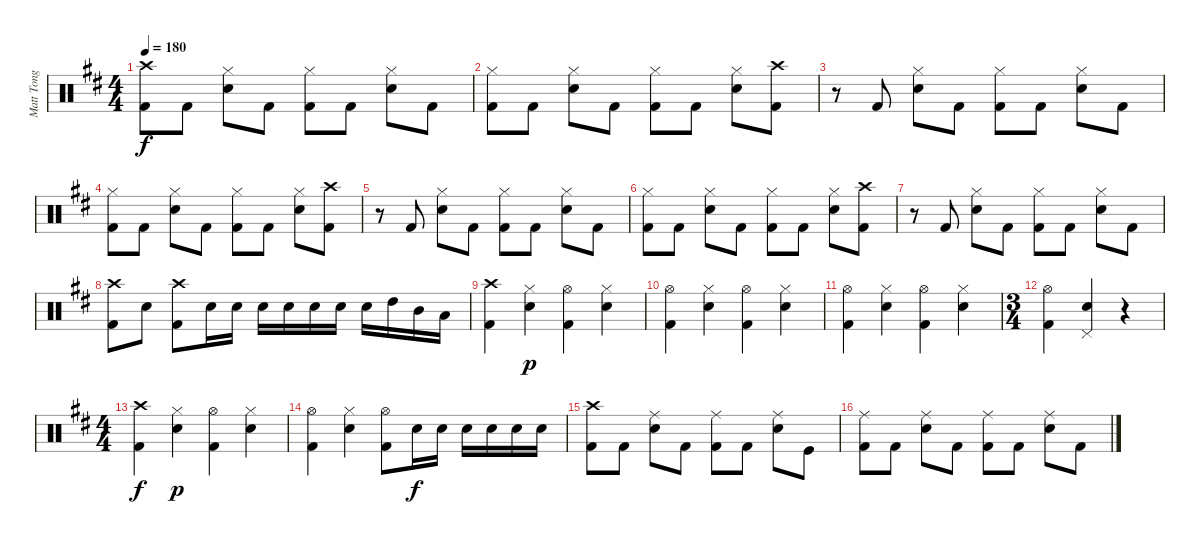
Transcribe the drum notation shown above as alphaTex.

\track ("Matt Tong" "Matt Tong") {instrument percussion}
\staff {score}
\articulation defaults
\ts (4 4)
\tempo 180
\clef neutral
\ks d
("Crash high (hit)" "Kick (hit) 2").8{dy f} "Kick (hit) 2".8 ("Hi-Hat (closed)" "Electric Snare (hit)").8 "Kick (hit) 2".8 ("Hi-Hat (closed)" "Kick (hit) 2").8 "Kick (hit) 2".8 ("Hi-Hat (closed)" "Electric Snare (hit)").8 "Kick (hit) 2".8 |
("Hi-Hat (closed)" "Kick (hit) 2").8 "Kick (hit) 2".8 ("Hi-Hat (closed)" "Electric Snare (hit)").8 "Kick (hit) 2".8 ("Hi-Hat (closed)" "Kick (hit) 2").8 "Kick (hit) 2".8 ("Hi-Hat (closed)" "Electric Snare (hit)").8 ("Crash high (hit)" "Kick (hit) 2").8 |
r.8 "Kick (hit) 2".8 ("Hi-Hat (closed)" "Electric Snare (hit)").8 "Kick (hit) 2".8 ("Hi-Hat (closed)" "Kick (hit) 2").8 "Kick (hit) 2".8 ("Hi-Hat (closed)" "Electric Snare (hit)").8 "Kick (hit) 2".8 |
("Hi-Hat (closed)" "Kick (hit) 2").8 "Kick (hit) 2".8 ("Hi-Hat (closed)" "Electric Snare (hit)").8 "Kick (hit) 2".8 ("Hi-Hat (closed)" "Kick (hit) 2").8 "Kick (hit) 2".8 ("Hi-Hat (closed)" "Electric Snare (hit)").8 ("Crash high (hit)" "Kick (hit) 2").8 |
r.8 "Kick (hit) 2".8 ("Hi-Hat (closed)" "Electric Snare (hit)").8 "Kick (hit) 2".8 ("Hi-Hat (closed)" "Kick (hit) 2").8 "Kick (hit) 2".8 ("Hi-Hat (closed)" "Electric Snare (hit)").8 "Kick (hit) 2".8 |
("Hi-Hat (closed)" "Kick (hit) 2").8 "Kick (hit) 2".8 ("Hi-Hat (closed)" "Electric Snare (hit)").8 "Kick (hit) 2".8 ("Hi-Hat (closed)" "Kick (hit) 2").8 "Kick (hit) 2".8 ("Hi-Hat (closed)" "Electric Snare (hit)").8 ("Crash high (hit)" "Kick (hit) 2").8 |
r.8 "Kick (hit) 2".8 ("Hi-Hat (closed)" "Electric Snare (hit)").8 "Kick (hit) 2".8 ("Hi-Hat (closed)" "Kick (hit) 2").8 "Kick (hit) 2".8 ("Hi-Hat (closed)" "Electric Snare (hit)").8 "Kick (hit) 2".8 |
("Crash high (hit)" "Kick (hit) 2").8 "Electric Snare (hit)".8 ("Crash high (hit)" "Kick (hit) 2").8 "Electric Snare (hit)".16 "Electric Snare (hit)".16 "Electric Snare (hit)".16 "Electric Snare (hit)".16 "Electric Snare (hit)".16 "Electric Snare (hit)".16 "Electric Snare (hit)".16 "High Tom (hit)".16 "Mid Tom (hit)".16 "Low Tom (hit)".16 |
("Crash high (hit)" "Kick (hit) 2").4 ("Hi-Hat (closed)" "Electric Snare (hit)").4{dy p} ("Hi-Hat (open)" "Kick (hit) 2").4 ("Hi-Hat (closed)" "Electric Snare (hit)").4 |
("Hi-Hat (open)" "Kick (hit) 2").4 ("Hi-Hat (closed)" "Electric Snare (hit)").4 ("Hi-Hat (open)" "Kick (hit) 2").4 ("Hi-Hat (closed)" "Electric Snare (hit)").4 |
("Hi-Hat (open)" "Kick (hit) 2").4 ("Hi-Hat (closed)" "Electric Snare (hit)").4 ("Hi-Hat (open)" "Kick (hit) 2").4 ("Hi-Hat (closed)" "Electric Snare (hit)").4 |
\ts (3 4)
("Hi-Hat (open)" "Kick (hit) 2").4 ("Pedal Hi-Hat (hit)" "Electric Snare (hit)").4 r.4 |
\ts (4 4)
("Crash high (hit)" "Kick (hit) 2").4{dy f} ("Hi-Hat (closed)" "Electric Snare (hit)").4{dy p} ("Hi-Hat (open)" "Kick (hit) 2").4 ("Hi-Hat (closed)" "Electric Snare (hit)").4 |
("Hi-Hat (open)" "Kick (hit) 2").4 ("Hi-Hat (closed)" "Electric Snare (hit)").4 ("Hi-Hat (open)" "Kick (hit) 2").8 "Electric Snare (hit)".16{dy f} "Electric Snare (hit)".16 "Electric Snare (hit)".16 "Electric Snare (hit)".16 "Electric Snare (hit)".16 "Electric Snare (hit)".16 |
("Crash high (hit)" "Kick (hit) 2").8 "Kick (hit) 2".8 ("Ride (middle)" "Electric Snare (hit)").8 "Kick (hit) 2".8 ("Ride (middle)" "Kick (hit) 2").8 "Kick (hit) 2".8 ("Ride (middle)" "Electric Snare (hit)").8 "Kick (hit)".8 |
("Ride (middle)" "Kick (hit) 2").8 "Kick (hit) 2".8 ("Ride (middle)" "Electric Snare (hit)").8 "Kick (hit) 2".8 ("Ride (middle)" "Kick (hit) 2").8 "Kick (hit) 2".8 ("Ride (middle)" "Electric Snare (hit)").8 "Kick (hit) 2".8
